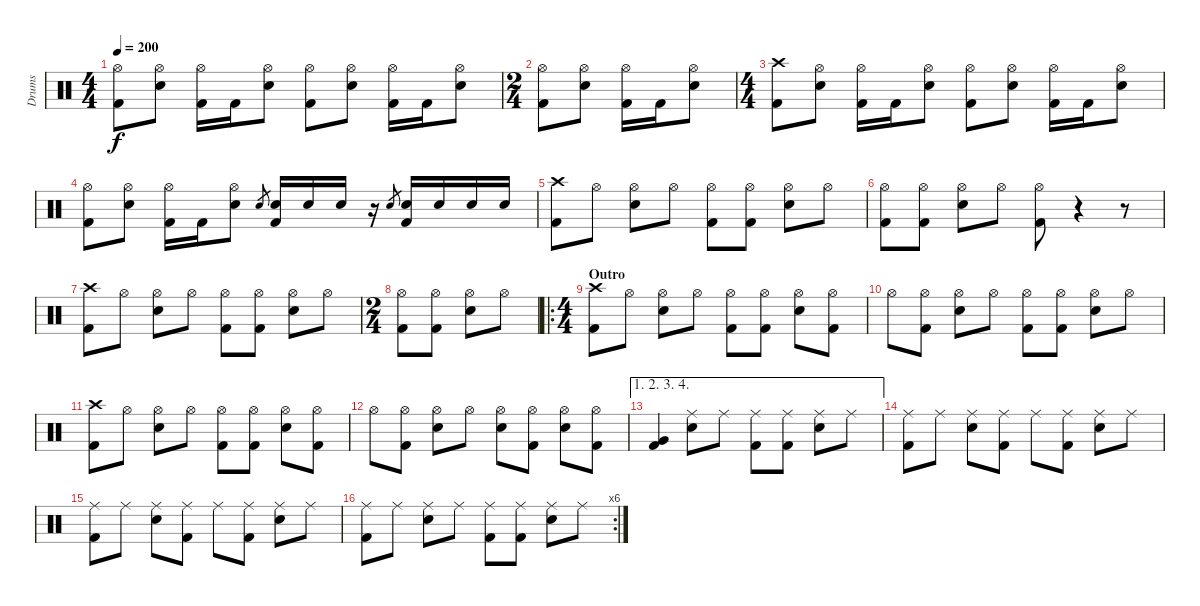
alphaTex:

\track ("Drums" "Drums") {instrument percussion}
\staff {score}
\articulation defaults
\ts (4 4)
\tempo 200
\clef neutral
\ks c
("Hi-Hat (open)" "Kick (hit) 2").8{dy f} ("Hi-Hat (open)" "Electric Snare (hit)").8 ("Hi-Hat (open)" "Kick (hit) 2").16 "Kick (hit) 2".16 ("Hi-Hat (open)" "Electric Snare (hit)").8 ("Hi-Hat (open)" "Kick (hit) 2").8 ("Hi-Hat (open)" "Electric Snare (hit)").8 ("Hi-Hat (open)" "Kick (hit) 2").16 "Kick (hit) 2".16 ("Hi-Hat (open)" "Electric Snare (hit)").8 |
\ts (2 4)
("Hi-Hat (open)" "Kick (hit) 2").8 ("Hi-Hat (open)" "Electric Snare (hit)").8 ("Hi-Hat (open)" "Kick (hit) 2").16 "Kick (hit) 2".16 ("Hi-Hat (open)" "Electric Snare (hit)").8 |
\ts (4 4)
("Crash high (hit)" "Kick (hit) 2").8 ("Hi-Hat (open)" "Electric Snare (hit)").8 ("Hi-Hat (open)" "Kick (hit) 2").16 "Kick (hit) 2".16 ("Hi-Hat (open)" "Electric Snare (hit)").8 ("Hi-Hat (open)" "Kick (hit) 2").8 ("Hi-Hat (open)" "Electric Snare (hit)").8 ("Hi-Hat (open)" "Kick (hit) 2").16 "Kick (hit) 2".16 ("Hi-Hat (open)" "Electric Snare (hit)").8 |
("Hi-Hat (open)" "Kick (hit) 2").8 ("Hi-Hat (open)" "Electric Snare (hit)").8 ("Hi-Hat (open)" "Kick (hit) 2").16 "Kick (hit) 2".16 ("Hi-Hat (open)" "Electric Snare (hit)").8 "Electric Snare (hit)".8{gr} ("Electric Snare (hit)" "Kick (hit) 2").16 "Electric Snare (hit)".16 "Electric Snare (hit)".16 r.16 "Electric Snare (hit)".8{gr} ("Electric Snare (hit)" "Kick (hit) 2").16 "Electric Snare (hit)".16 "Electric Snare (hit)".16 "Electric Snare (hit)".16 |
("Crash high (hit)" "Kick (hit) 2").8 "Hi-Hat (open)".8 ("Hi-Hat (open)" "Electric Snare (hit)").8 "Hi-Hat (open)".8 ("Hi-Hat (open)" "Kick (hit) 2").8 ("Hi-Hat (open)" "Kick (hit) 2").8 ("Hi-Hat (open)" "Electric Snare (hit)").8 "Hi-Hat (open)".8 |
("Hi-Hat (open)" "Kick (hit) 2").8 ("Hi-Hat (open)" "Kick (hit) 2").8 ("Hi-Hat (open)" "Electric Snare (hit)").8 "Hi-Hat (open)".8 ("Hi-Hat (open)" "Kick (hit) 2").8 r.4 r.8 |
("Crash high (hit)" "Kick (hit) 2").8 "Hi-Hat (open)".8 ("Hi-Hat (open)" "Electric Snare (hit)").8 "Hi-Hat (open)".8 ("Hi-Hat (open)" "Kick (hit) 2").8 ("Hi-Hat (open)" "Kick (hit) 2").8 ("Hi-Hat (open)" "Electric Snare (hit)").8 "Hi-Hat (open)".8 |
\ts (2 4)
("Hi-Hat (open)" "Kick (hit) 2").8 ("Hi-Hat (open)" "Kick (hit) 2").8 ("Hi-Hat (open)" "Electric Snare (hit)").8 "Hi-Hat (open)".8 |
\ro
\ts (4 4)
\section ("" "Outro")
("Crash high (hit)" "Kick (hit) 2").8 "Hi-Hat (open)".8 ("Hi-Hat (open)" "Electric Snare (hit)").8 "Hi-Hat (open)".8 ("Hi-Hat (open)" "Kick (hit) 2").8 ("Hi-Hat (open)" "Kick (hit) 2").8 ("Hi-Hat (open)" "Electric Snare (hit)").8 ("Hi-Hat (open)" "Kick (hit) 2").8 |
"Hi-Hat (open)".8 ("Hi-Hat (open)" "Kick (hit) 2").8 ("Hi-Hat (open)" "Electric Snare (hit)").8 "Hi-Hat (open)".8 ("Hi-Hat (open)" "Kick (hit) 2").8 ("Hi-Hat (open)" "Kick (hit) 2").8 ("Hi-Hat (open)" "Electric Snare (hit)").8 "Hi-Hat (open)".8 |
("Crash high (hit)" "Kick (hit) 2").8 "Hi-Hat (open)".8 ("Hi-Hat (open)" "Electric Snare (hit)").8 "Hi-Hat (open)".8 ("Hi-Hat (open)" "Kick (hit) 2").8 ("Hi-Hat (open)" "Kick (hit) 2").8 ("Hi-Hat (open)" "Electric Snare (hit)").8 ("Hi-Hat (open)" "Kick (hit) 2").8 |
"Hi-Hat (open)".8 ("Hi-Hat (open)" "Kick (hit) 2").8 ("Hi-Hat (open)" "Electric Snare (hit)").8 "Hi-Hat (open)".8 ("Hi-Hat (open)" "Electric Snare (hit)").8 ("Hi-Hat (open)" "Kick (hit) 2").8 ("Hi-Hat (open)" "Electric Snare (hit)").8 ("Hi-Hat (open)" "Kick (hit) 2").8 |
\ae (1 2 3 4)
("Very Low Tom (hit)" "Kick (hit) 2").4 ("Ride (middle)" "Electric Snare (hit)").8 "Ride (middle)".8 ("Ride (middle)" "Kick (hit) 2").8 ("Ride (middle)" "Kick (hit) 2").8 ("Ride (middle)" "Electric Snare (hit)").8 "Ride (middle)".8 |
("Ride (middle)" "Kick (hit) 2").8 "Ride (middle)".8 ("Ride (middle)" "Electric Snare (hit)").8 ("Ride (middle)" "Kick (hit) 2").8 "Ride (middle)".8 ("Ride (middle)" "Kick (hit) 2").8 ("Ride (middle)" "Electric Snare (hit)").8 "Ride (middle)".8 |
("Ride (middle)" "Kick (hit) 2").8 "Ride (middle)".8 ("Ride (middle)" "Electric Snare (hit)").8 ("Ride (middle)" "Kick (hit) 2").8 "Ride (middle)".8 ("Ride (middle)" "Kick (hit) 2").8 ("Ride (middle)" "Electric Snare (hit)").8 "Ride (middle)".8 |
\rc 6
("Ride (middle)" "Kick (hit) 2").8 "Ride (middle)".8 ("Ride (middle)" "Electric Snare (hit)").8 "Ride (middle)".8 ("Ride (middle)" "Kick (hit) 2").8 ("Ride (middle)" "Kick (hit) 2").8 ("Ride (middle)" "Electric Snare (hit)").8 "Ride (middle)".8
